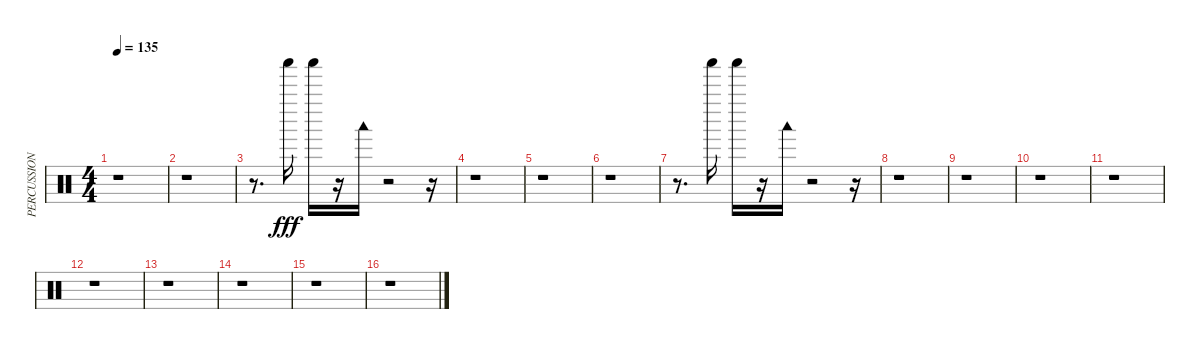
\track ("PERCUSSION" "PERCUSSION") {instrument percussion}
\staff {score}
\articulation defaults
\ts (4 4)
\tempo 135
\clef neutral
\ks c
r.1{dy fff} |
r.1 |
r.8{d} "Shaker (hit)".16 "Shaker (hit)".16 r.16 "Woodblock low (hit)".16 r.2 r.16 |
r.1 |
r.1 |
r.1 |
r.8{d} "Shaker (hit)".16 "Shaker (hit)".16 r.16 "Woodblock low (hit)".16 r.2 r.16 |
r.1 |
r.1 |
r.1 |
r.1 |
r.1 |
r.1 |
r.1 |
r.1 |
r.1
